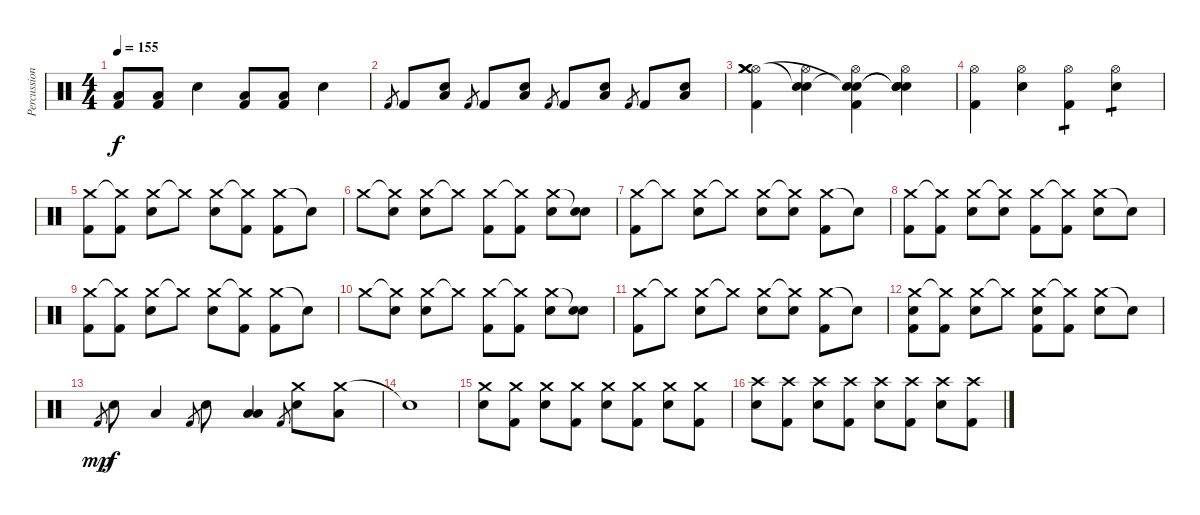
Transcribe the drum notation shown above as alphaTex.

\track ("Percussioni" "Percussion") {instrument percussion}
\staff {score}
\articulation defaults
\ts (4 4)
\tempo 155
\clef neutral
\ks c
("Kick (hit) 2" "Low Tom (hit)").8{dy f} ("Kick (hit) 2" "Low Tom (hit)").8 "Snare (hit) 2".4 ("Kick (hit) 2" "Low Tom (hit)").8 ("Kick (hit) 2" "Low Tom (hit)").8 "Snare (hit) 2".4 |
"Kick (hit) 2".8{gr} "Kick (hit) 2".8 ("Snare (hit) 2" "Low Floor Tom (hit)").8 "Kick (hit) 2".8{gr} "Kick (hit) 2".8 ("Snare (hit) 2" "Low Tom (hit)").8 "Kick (hit) 2".8{gr} "Kick (hit) 2".8 ("Snare (hit) 2" "Low Floor Tom (hit)").8 "Kick (hit) 2".8{gr} "Kick (hit) 2".8 ("Snare (hit) 2" "Low Tom (hit)").8 |
("Hi-Hat (open)" "Kick (hit) 2" "Crash medium (hit)" "Crash medium (hit)" "Crash medium (hit)").4 ("Snare (hit) 2" "Hi-Hat (open)" "Snare (hit)"{t}).4 ("Hi-Hat (open)" "Kick (hit) 2" "Snare (hit)"{t} "Snare (hit)"{t}).4 ("Snare (hit) 2" "Hi-Hat (open)" "Snare (hit)"{t} "Snare (hit)"{t}).4 |
("Hi-Hat (open)" "Kick (hit) 2").4 ("Snare (hit) 2" "Hi-Hat (open)").4 ("Hi-Hat (open)" "Kick (hit) 2").4{tp 1} ("Snare (hit) 2" "Hi-Hat (open)").4{tp 1} |
("Crash medium (hit)" "Kick (hit) 2").8 ("Crash medium (hit)"{t} "Kick (hit) 2").8 ("Crash medium (hit)" "Snare (hit) 2").8 "Crash medium (hit)"{t}.8 ("Crash medium (hit)" "Snare (hit) 2").8 ("Crash medium (hit)"{t} "Kick (hit) 2").8 ("Crash medium (hit)" "Kick (hit) 2").8 "Snare (hit)"{t}.8 |
"Crash medium (hit)".8 ("Crash medium (hit)"{t} "Snare (hit) 2").8 ("Crash medium (hit)" "Snare (hit) 2").8 "Crash medium (hit)"{t}.8 ("Crash medium (hit)" "Kick (hit) 2").8 ("Crash medium (hit)"{t} "Kick (hit) 2").8 ("Crash medium (hit)" "Snare (hit) 2").8 ("Snare (hit)"{t} "Snare (hit) 2").8 |
("Crash medium (hit)" "Kick (hit) 2").8 "Crash medium (hit)"{t}.8 ("Crash medium (hit)" "Snare (hit) 2").8 "Crash medium (hit)"{t}.8 ("Crash medium (hit)" "Snare (hit) 2").8 ("Crash medium (hit)"{t} "Snare (hit) 2").8 ("Crash medium (hit)" "Kick (hit) 2").8 "Snare (hit)"{t}.8 |
("Crash medium (hit)" "Kick (hit) 2").8 ("Crash medium (hit)"{t} "Kick (hit) 2").8 ("Crash medium (hit)" "Snare (hit) 2").8 ("Crash medium (hit)"{t} "Snare (hit) 2").8 ("Crash medium (hit)" "Kick (hit) 2").8 ("Crash medium (hit)"{t} "Kick (hit) 2").8 ("Crash medium (hit)" "Snare (hit) 2").8 "Snare (hit)"{t}.8 |
("Crash medium (hit)" "Kick (hit) 2").8 ("Crash medium (hit)"{t} "Kick (hit) 2").8 ("Crash medium (hit)" "Snare (hit) 2").8 "Crash medium (hit)"{t}.8 ("Crash medium (hit)" "Snare (hit) 2").8 ("Crash medium (hit)"{t} "Kick (hit) 2").8 ("Crash medium (hit)" "Kick (hit) 2").8 "Snare (hit)"{t}.8 |
"Crash medium (hit)".8 ("Crash medium (hit)"{t} "Snare (hit) 2").8 ("Crash medium (hit)" "Snare (hit) 2").8 "Crash medium (hit)"{t}.8 ("Crash medium (hit)" "Kick (hit) 2").8 ("Crash medium (hit)"{t} "Kick (hit) 2").8 ("Crash medium (hit)" "Snare (hit) 2").8 ("Snare (hit)"{t} "Snare (hit) 2").8 |
("Crash medium (hit)" "Kick (hit) 2").8 "Crash medium (hit)"{t}.8 ("Crash medium (hit)" "Snare (hit) 2").8 "Crash medium (hit)"{t}.8 ("Crash medium (hit)" "Snare (hit) 2").8 ("Crash medium (hit)"{t} "Snare (hit) 2").8 ("Crash medium (hit)" "Kick (hit) 2").8 "Snare (hit)"{t}.8 |
("Crash medium (hit)" "Snare (hit) 2" "Kick (hit) 2").8 ("Crash medium (hit)"{t} "Kick (hit) 2").8 ("Crash medium (hit)" "Snare (hit) 2").8 "Crash medium (hit)"{t}.8 ("Crash medium (hit)" "Snare (hit) 2" "Kick (hit) 2").8 ("Crash medium (hit)"{t} "Kick (hit) 2").8 ("Crash medium (hit)" "Snare (hit) 2").8 "Snare (hit)"{t}.8 |
"Kick (hit) 2".8{gr dy mp} "Snare (hit) 2".8{dy f} "Low Tom (hit)".4 "Kick (hit) 2".8{gr} "Snare (hit) 2".8 ("Low Floor Tom (hit)" "Low Tom (hit)").4 "Kick (hit) 2".8{gr} ("Snare (hit) 2" "Crash medium (hit)").8 ("Crash medium (hit)" "Low Tom (hit)").8 |
"Snare (hit)"{t}.1 |
("Crash medium (hit)" "Snare (hit) 2").8 ("Crash medium (hit)" "Kick (hit) 2").8 ("Crash medium (hit)" "Snare (hit) 2").8 ("Crash medium (hit)" "Kick (hit) 2").8 ("Crash medium (hit)" "Snare (hit) 2").8 ("Crash medium (hit)" "Kick (hit) 2").8 ("Crash medium (hit)" "Snare (hit) 2").8 ("Crash medium (hit)" "Kick (hit) 2").8 |
("Crash high (hit)" "Snare (hit) 2").8 ("Crash high (hit)" "Kick (hit) 2").8 ("Crash high (hit)" "Snare (hit) 2").8 ("Crash high (hit)" "Kick (hit) 2").8 ("Crash high (hit)" "Snare (hit) 2").8 ("Crash high (hit)" "Kick (hit) 2").8 ("Crash high (hit)" "Snare (hit) 2").8 ("Crash high (hit)" "Kick (hit) 2").8
